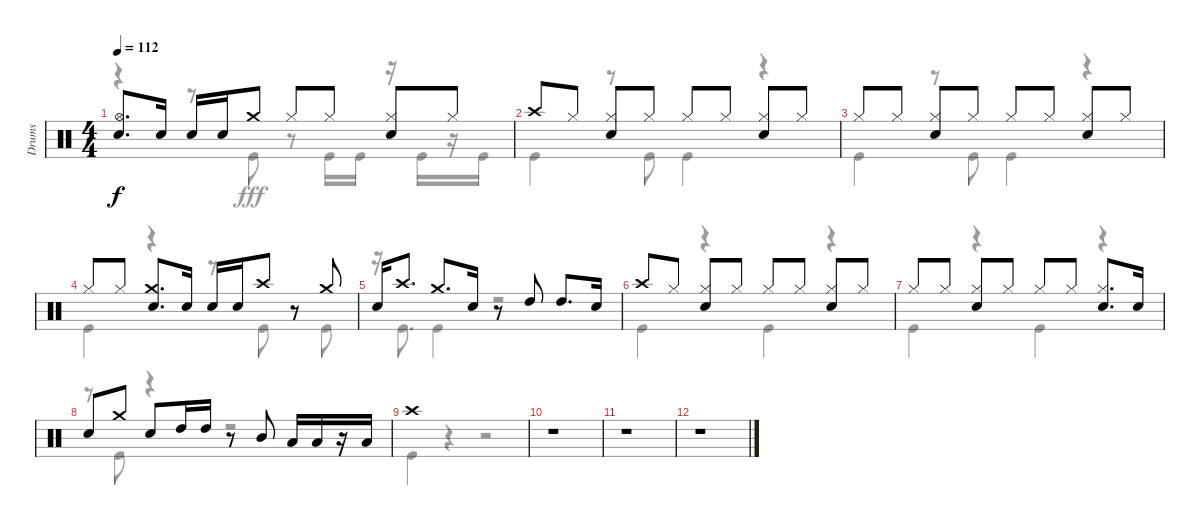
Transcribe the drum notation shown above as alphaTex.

\track ("Drums" "Drums") {instrument percussion}
\staff {score}
\articulation defaults
\voice
\ts (4 4)
\tempo 112
\clef neutral
\ks c
("Hi-Hat (open)" "Snare (hit) 2").8{d dy f} "Snare (hit) 2".16 "Snare (hit) 2".16 "Snare (hit) 2".16 "Crash medium (hit)".8 "Hi-Hat (closed)".8 "Hi-Hat (closed)".8 ("Hi-Hat (closed)" "Snare (hit) 2").8 "Hi-Hat (closed)".8 |
"Crash high (hit)".8 "Hi-Hat (closed)".8 ("Hi-Hat (closed)" "Snare (hit) 2").8 "Hi-Hat (closed)".8 "Hi-Hat (closed)".8 "Hi-Hat (closed)".8 ("Hi-Hat (closed)" "Snare (hit) 2").8 "Hi-Hat (closed)".8 |
"Hi-Hat (closed)".8 "Hi-Hat (closed)".8 ("Hi-Hat (closed)" "Snare (hit) 2").8 "Hi-Hat (closed)".8 "Hi-Hat (closed)".8 "Hi-Hat (closed)".8 ("Hi-Hat (closed)" "Snare (hit) 2").8 "Hi-Hat (closed)".8 |
"Hi-Hat (closed)".8 "Hi-Hat (closed)".8 ("Crash medium (hit)" "Snare (hit) 2").8{d} "Snare (hit) 2".16 "Snare (hit) 2".16 "Snare (hit) 2".16 "Crash high (hit)".8 r.8 "Crash medium (hit)".8 |
"Snare (hit) 2".16 "Crash high (hit)".8{d} "Crash medium (hit)".8{d} "Snare (hit) 2".16 r.8 "High Tom (hit)".8 "High Tom (hit)".8{d} "Snare (hit) 2".16 |
"Crash high (hit)".8 "Hi-Hat (closed)".8 ("Hi-Hat (closed)" "Snare (hit) 2").8 "Hi-Hat (closed)".8 "Hi-Hat (closed)".8 "Hi-Hat (closed)".8 ("Hi-Hat (closed)" "Snare (hit) 2").8 "Hi-Hat (closed)".8 |
"Hi-Hat (closed)".8 "Hi-Hat (closed)".8 ("Hi-Hat (closed)" "Snare (hit) 2").8 "Hi-Hat (closed)".8 "Hi-Hat (closed)".8 "Hi-Hat (closed)".8 ("Hi-Hat (closed)" "Snare (hit) 2").8{d} "Snare (hit) 2".16 |
"Snare (hit) 2".8 "Crash medium (hit)".8 "Snare (hit) 2".8 "High Tom (hit)".16 "High Tom (hit)".16 r.8 "Mid Tom (hit)".8 "Low Tom (hit)".16 "Low Tom (hit)".16 r.16 "Low Tom (hit)".16 |
"Crash high (hit)".1 |
r.1 |
r.1 |
r.1
\voice
\clef neutral
\ottava regular
\simile none
\ks c
r.4{dy fff} r.8 "Kick (hit)".8 r.8 "Kick (hit)".16 "Kick (hit)".16 r.16 "Kick (hit)".16 r.16 "Kick (hit)".16 |
"Kick (hit)".4 r.8 "Kick (hit)".8 "Kick (hit)".4 r.4 |
"Kick (hit)".4 r.8 "Kick (hit)".8 "Kick (hit)".4 r.4 |
"Kick (hit)".4 r.4 r.8 "Kick (hit)".8 r.8 "Kick (hit)".8 |
r.16 "Kick (hit)".8{d} "Kick (hit)".4 r.2 |
"Kick (hit)".4 r.4 "Kick (hit)".4 r.4 |
"Kick (hit)".4 r.4 "Kick (hit)".4 r.4 |
r.8 "Kick (hit)".8 r.4 r.2 |
"Kick (hit)".4 r.4 r.2 |
r.1 |
r.1 |
r.1
